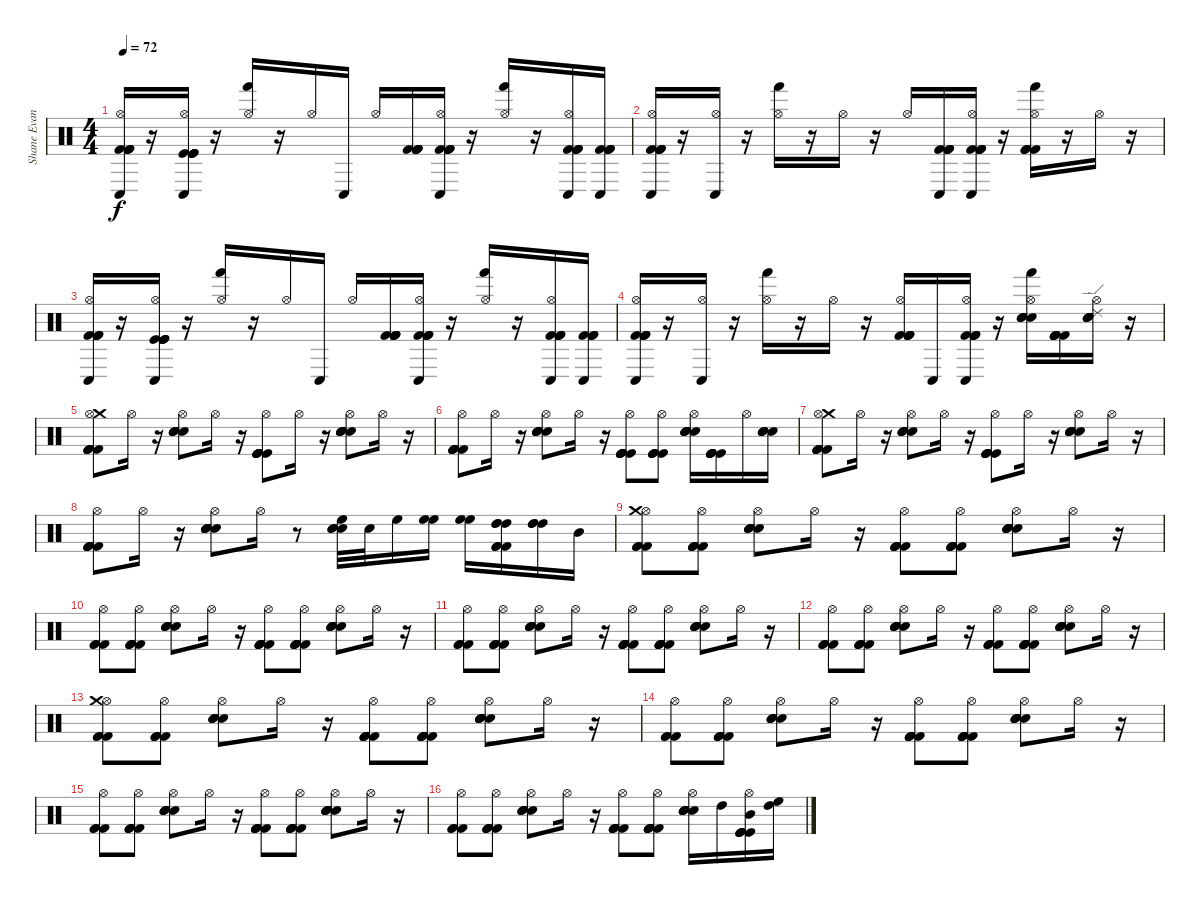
\track ("Shane Evans" "Shane Evan") {instrument percussion}
\staff {score}
\articulation defaults
\ts (4 4)
\tempo 72
\clef neutral
\ks c
("Conga low (hit)" "Hi-Hat (open)" "Kick (hit) 2" "Kick (hit) 2" "Kick (hit) 2" "Kick (hit) 2").16{dy f} r.16 ("Conga low (hit)" "Hi-Hat (open)" "Kick (hit)" "Kick (hit)" "Kick (hit)" "Kick (hit)").16 r.16 ("Hand (hit)" "Hi-Hat (open)").16 r.16 "Hi-Hat (open)".16 "Conga low (hit)".16 "Hi-Hat (open)".16 ("Kick (hit) 2" "Kick (hit) 2" "Kick (hit) 2" "Kick (hit) 2" "Kick (hit) 2" "Kick (hit) 2").16 ("Conga low (hit)" "Hi-Hat (open)" "Kick (hit) 2" "Kick (hit) 2" "Kick (hit) 2" "Kick (hit) 2").16 r.16 ("Hand (hit)" "Hi-Hat (open)").16 r.16 ("Conga low (hit)" "Hi-Hat (open)" "Kick (hit) 2" "Kick (hit) 2" "Kick (hit) 2" "Kick (hit) 2").16 ("Conga low (hit)" "Kick (hit) 2" "Kick (hit) 2" "Kick (hit) 2" "Kick (hit) 2").16 |
("Conga low (hit)" "Hi-Hat (open)" "Kick (hit) 2" "Kick (hit) 2" "Kick (hit) 2" "Kick (hit) 2").16 r.16 ("Conga low (hit)" "Hi-Hat (open)").16 r.16 ("Hand (hit)" "Hi-Hat (open)").16 r.16 "Hi-Hat (open)".16 r.16 "Hi-Hat (open)".16 ("Conga low (hit)" "Kick (hit) 2" "Kick (hit) 2" "Kick (hit) 2" "Kick (hit) 2").16 ("Conga low (hit)" "Hi-Hat (open)" "Kick (hit) 2" "Kick (hit) 2" "Kick (hit) 2" "Kick (hit) 2").16 r.16 ("Hand (hit)" "Hi-Hat (open)" "Kick (hit) 2" "Kick (hit) 2" "Kick (hit) 2" "Kick (hit) 2").16 r.16 "Hi-Hat (open)".16 r.16 |
("Conga low (hit)" "Hi-Hat (open)" "Kick (hit) 2" "Kick (hit) 2" "Kick (hit) 2" "Kick (hit) 2").16 r.16 ("Conga low (hit)" "Hi-Hat (open)" "Kick (hit)" "Kick (hit)" "Kick (hit)" "Kick (hit)").16 r.16 ("Hand (hit)" "Hi-Hat (open)").16 r.16 "Hi-Hat (open)".16 "Conga low (hit)".16 "Hi-Hat (open)".16 ("Kick (hit) 2" "Kick (hit) 2" "Kick (hit) 2" "Kick (hit) 2" "Kick (hit) 2" "Kick (hit) 2").16 ("Conga low (hit)" "Hi-Hat (open)" "Kick (hit) 2" "Kick (hit) 2" "Kick (hit) 2" "Kick (hit) 2").16 r.16 ("Hand (hit)" "Hi-Hat (open)").16 r.16 ("Conga low (hit)" "Hi-Hat (open)" "Kick (hit) 2" "Kick (hit) 2" "Kick (hit) 2" "Kick (hit) 2").16 ("Conga low (hit)" "Kick (hit) 2" "Kick (hit) 2" "Kick (hit) 2" "Kick (hit) 2").16 |
("Conga low (hit)" "Hi-Hat (open)" "Kick (hit) 2" "Kick (hit) 2" "Kick (hit) 2" "Kick (hit) 2").16 r.16 ("Conga low (hit)" "Hi-Hat (open)").16 r.16 ("Hand (hit)" "Hi-Hat (open)").16 r.16 "Hi-Hat (open)".16 r.16 ("Hi-Hat (open)" "Kick (hit) 2" "Kick (hit) 2" "Kick (hit) 2" "Kick (hit) 2" "Kick (hit) 2").16 "Conga low (hit)".16 ("Conga low (hit)" "Hi-Hat (open)" "Kick (hit) 2" "Kick (hit) 2" "Kick (hit) 2" "Kick (hit) 2").16 r.16 ("Hand (hit)" "Hi-Hat (open)" "Snare (hit) 2" "Snare (hit) 2" "Snare (hit) 2" "Snare (hit) 2").16 ("Kick (hit) 2" "Kick (hit) 2" "Kick (hit) 2" "Kick (hit) 2" "Kick (hit) 2" "Kick (hit) 2").16 ("Hi-Hat (open)" "Snare (hit) 2" "Snare (hit) 2" "Snare (hit) 2" "Snare (hit) 2" "Ride (edge) 2").16 r.16 |
("Crash medium (hit)" "Kick (hit) 2" "Kick (hit) 2" "Kick (hit) 2" "Kick (hit) 2" "Hi-Hat (open)").8 "Hi-Hat (open)".16 r.16 ("Hi-Hat (open)" "Snare (hit) 2" "Snare (hit) 2" "Snare (hit) 2" "Snare (hit) 2" "Snare (hit) 2").8 "Hi-Hat (open)".16 r.16 ("Hi-Hat (open)" "Kick (hit)" "Kick (hit)" "Kick (hit)" "Kick (hit)" "Kick (hit)").8 "Hi-Hat (open)".16 r.16 ("Hi-Hat (open)" "Snare (hit) 2" "Snare (hit) 2" "Snare (hit) 2" "Snare (hit) 2" "Snare (hit) 2").8 "Hi-Hat (open)".16 r.16 |
("Kick (hit) 2" "Kick (hit) 2" "Kick (hit) 2" "Kick (hit) 2" "Hi-Hat (open)" "Kick (hit) 2").8 "Hi-Hat (open)".16 r.16 ("Hi-Hat (open)" "Snare (hit) 2" "Snare (hit) 2" "Snare (hit) 2" "Snare (hit) 2" "Snare (hit) 2").8 "Hi-Hat (open)".16 r.16 ("Hi-Hat (open)" "Kick (hit)" "Kick (hit)" "Kick (hit)" "Kick (hit)" "Kick (hit)").8 ("Hi-Hat (open)" "Kick (hit)" "Kick (hit)" "Kick (hit)" "Kick (hit)").8 ("Hi-Hat (open)" "Snare (hit) 2" "Snare (hit) 2" "Snare (hit) 2" "Snare (hit) 2" "Snare (hit) 2").16 ("Kick (hit)" "Kick (hit)" "Kick (hit)" "Kick (hit)" "Kick (hit)").16 "Hi-Hat (open)".16 ("Snare (hit) 2" "Snare (hit) 2" "Snare (hit) 2" "Snare (hit) 2").16 |
("Crash medium (hit)" "Kick (hit) 2" "Kick (hit) 2" "Kick (hit) 2" "Kick (hit) 2" "Hi-Hat (open)").8 "Hi-Hat (open)".16 r.16 ("Hi-Hat (open)" "Snare (hit) 2" "Snare (hit) 2" "Snare (hit) 2" "Snare (hit) 2" "Snare (hit) 2").8 "Hi-Hat (open)".16 r.16 ("Hi-Hat (open)" "Kick (hit)" "Kick (hit)" "Kick (hit)" "Kick (hit)" "Kick (hit)").8 "Hi-Hat (open)".16 r.16 ("Hi-Hat (open)" "Snare (hit) 2" "Snare (hit) 2" "Snare (hit) 2" "Snare (hit) 2" "Snare (hit) 2").8 "Hi-Hat (open)".16 r.16 |
("Kick (hit) 2" "Kick (hit) 2" "Kick (hit) 2" "Kick (hit) 2" "Hi-Hat (open)" "Kick (hit) 2").8 "Hi-Hat (open)".16 r.16 ("Hi-Hat (open)" "Snare (hit) 2" "Snare (hit) 2" "Snare (hit) 2" "Snare (hit) 2" "Snare (hit) 2").8 "Hi-Hat (open)".16 r.8 ("Snare (hit) 2" "High Floor Tom (hit)" "Snare (hit) 2" "Snare (hit) 2").32 "Snare (hit) 2".32 "High Floor Tom (hit)".16 ("High Floor Tom (hit)" "High Floor Tom (hit)").16 ("High Floor Tom (hit)" "High Floor Tom (hit)").16 ("High Tom (hit)" "High Tom (hit)" "High Tom (hit)" "Kick (hit) 2" "Kick (hit) 2" "Kick (hit) 2").16 ("High Tom (hit)" "High Tom (hit)" "High Tom (hit)").16 "Mid Tom (hit)".16 |
("Hi-Hat (open)" "Crash medium (hit)" "Kick (hit) 2" "Kick (hit) 2" "Kick (hit) 2").8 ("Hi-Hat (open)" "Kick (hit) 2" "Kick (hit) 2" "Kick (hit) 2" "Kick (hit) 2").8 ("Hi-Hat (open)" "Snare (hit) 2" "Snare (hit) 2" "Snare (hit) 2" "Snare (hit) 2").8 "Hi-Hat (open)".16 r.16 ("Hi-Hat (open)" "Kick (hit) 2" "Kick (hit) 2" "Kick (hit) 2" "Kick (hit) 2" "Kick (hit) 2").8 ("Hi-Hat (open)" "Kick (hit) 2" "Kick (hit) 2" "Kick (hit) 2" "Kick (hit) 2" "Kick (hit) 2").8 ("Hi-Hat (open)" "Snare (hit) 2" "Snare (hit) 2" "Snare (hit) 2" "Snare (hit) 2" "Snare (hit) 2").8 "Hi-Hat (open)".16 r.16 |
("Hi-Hat (open)" "Kick (hit) 2" "Kick (hit) 2" "Kick (hit) 2").8 ("Hi-Hat (open)" "Kick (hit) 2" "Kick (hit) 2" "Kick (hit) 2" "Kick (hit) 2").8 ("Hi-Hat (open)" "Snare (hit) 2" "Snare (hit) 2" "Snare (hit) 2" "Snare (hit) 2").8 "Hi-Hat (open)".16 r.16 ("Hi-Hat (open)" "Kick (hit) 2" "Kick (hit) 2" "Kick (hit) 2" "Kick (hit) 2" "Kick (hit) 2").8 ("Hi-Hat (open)" "Kick (hit) 2" "Kick (hit) 2" "Kick (hit) 2" "Kick (hit) 2" "Kick (hit) 2").8 ("Hi-Hat (open)" "Snare (hit) 2" "Snare (hit) 2" "Snare (hit) 2" "Snare (hit) 2" "Snare (hit) 2").8 "Hi-Hat (open)".16 r.16 |
("Hi-Hat (open)" "Kick (hit) 2" "Kick (hit) 2" "Kick (hit) 2").8 ("Hi-Hat (open)" "Kick (hit) 2" "Kick (hit) 2" "Kick (hit) 2" "Kick (hit) 2").8 ("Hi-Hat (open)" "Snare (hit) 2" "Snare (hit) 2" "Snare (hit) 2" "Snare (hit) 2").8 "Hi-Hat (open)".16 r.16 ("Hi-Hat (open)" "Kick (hit) 2" "Kick (hit) 2" "Kick (hit) 2" "Kick (hit) 2" "Kick (hit) 2").8 ("Hi-Hat (open)" "Kick (hit) 2" "Kick (hit) 2" "Kick (hit) 2" "Kick (hit) 2" "Kick (hit) 2").8 ("Hi-Hat (open)" "Snare (hit) 2" "Snare (hit) 2" "Snare (hit) 2" "Snare (hit) 2" "Snare (hit) 2").8 "Hi-Hat (open)".16 r.16 |
("Hi-Hat (open)" "Kick (hit) 2" "Kick (hit) 2" "Kick (hit) 2").8 ("Hi-Hat (open)" "Kick (hit) 2" "Kick (hit) 2" "Kick (hit) 2" "Kick (hit) 2").8 ("Hi-Hat (open)" "Snare (hit) 2" "Snare (hit) 2" "Snare (hit) 2" "Snare (hit) 2" "Snare (hit) 2").8 "Hi-Hat (open)".16 r.16 ("Hi-Hat (open)" "Kick (hit) 2" "Kick (hit) 2" "Kick (hit) 2" "Kick (hit) 2").8 ("Hi-Hat (open)" "Kick (hit) 2" "Kick (hit) 2" "Kick (hit) 2" "Kick (hit) 2" "Kick (hit) 2").8 ("Hi-Hat (open)" "Snare (hit) 2" "Snare (hit) 2" "Snare (hit) 2" "Snare (hit) 2" "Snare (hit) 2").8 "Hi-Hat (open)".16 r.16 |
("Hi-Hat (open)" "Crash medium (hit)" "Kick (hit) 2" "Kick (hit) 2" "Kick (hit) 2").8 ("Hi-Hat (open)" "Kick (hit) 2" "Kick (hit) 2" "Kick (hit) 2" "Kick (hit) 2").8 ("Hi-Hat (open)" "Snare (hit) 2" "Snare (hit) 2" "Snare (hit) 2" "Snare (hit) 2").8 "Hi-Hat (open)".16 r.16 ("Hi-Hat (open)" "Kick (hit) 2" "Kick (hit) 2" "Kick (hit) 2" "Kick (hit) 2" "Kick (hit) 2").8 ("Hi-Hat (open)" "Kick (hit) 2" "Kick (hit) 2" "Kick (hit) 2" "Kick (hit) 2" "Kick (hit) 2").8 ("Hi-Hat (open)" "Snare (hit) 2" "Snare (hit) 2" "Snare (hit) 2" "Snare (hit) 2" "Snare (hit) 2").8 "Hi-Hat (open)".16 r.16 |
("Hi-Hat (open)" "Kick (hit) 2" "Kick (hit) 2" "Kick (hit) 2").8 ("Hi-Hat (open)" "Kick (hit) 2" "Kick (hit) 2" "Kick (hit) 2" "Kick (hit) 2").8 ("Hi-Hat (open)" "Snare (hit) 2" "Snare (hit) 2" "Snare (hit) 2" "Snare (hit) 2").8 "Hi-Hat (open)".16 r.16 ("Hi-Hat (open)" "Kick (hit) 2" "Kick (hit) 2" "Kick (hit) 2" "Kick (hit) 2" "Kick (hit) 2").8 ("Hi-Hat (open)" "Kick (hit) 2" "Kick (hit) 2" "Kick (hit) 2" "Kick (hit) 2" "Kick (hit) 2").8 ("Hi-Hat (open)" "Snare (hit) 2" "Snare (hit) 2" "Snare (hit) 2" "Snare (hit) 2" "Snare (hit) 2").8 "Hi-Hat (open)".16 r.16 |
("Hi-Hat (open)" "Kick (hit) 2" "Kick (hit) 2" "Kick (hit) 2").8 ("Hi-Hat (open)" "Kick (hit) 2" "Kick (hit) 2" "Kick (hit) 2" "Kick (hit) 2").8 ("Hi-Hat (open)" "Snare (hit) 2" "Snare (hit) 2" "Snare (hit) 2" "Snare (hit) 2").8 "Hi-Hat (open)".16 r.16 ("Hi-Hat (open)" "Kick (hit) 2" "Kick (hit) 2" "Kick (hit) 2" "Kick (hit) 2" "Kick (hit) 2").8 ("Hi-Hat (open)" "Kick (hit) 2" "Kick (hit) 2" "Kick (hit) 2" "Kick (hit) 2" "Kick (hit) 2").8 ("Hi-Hat (open)" "Snare (hit) 2" "Snare (hit) 2" "Snare (hit) 2" "Snare (hit) 2" "Snare (hit) 2").8 "Hi-Hat (open)".16 r.16 |
("Hi-Hat (open)" "Kick (hit) 2" "Kick (hit) 2" "Kick (hit) 2").8 ("Hi-Hat (open)" "Kick (hit) 2" "Kick (hit) 2" "Kick (hit) 2" "Kick (hit) 2").8 ("Hi-Hat (open)" "Snare (hit) 2" "Snare (hit) 2" "Snare (hit) 2" "Snare (hit) 2").8 "Hi-Hat (open)".16 r.16 ("Hi-Hat (open)" "Kick (hit) 2" "Kick (hit) 2" "Kick (hit) 2" "Kick (hit) 2" "Kick (hit) 2").8 ("Hi-Hat (open)" "Kick (hit) 2" "Kick (hit) 2" "Kick (hit) 2" "Kick (hit) 2" "Kick (hit) 2").8 ("Hi-Hat (open)" "Snare (hit) 2" "Snare (hit) 2" "Snare (hit) 2" "Snare (hit) 2" "Snare (hit) 2").16 "High Tom (hit)".16 ("Hi-Hat (open)" "Kick (hit)" "Kick (hit)" "Kick (hit)" "Kick (hit)" "Mid Tom (hit)").16 ("High Floor Tom (hit)" "High Tom (hit)").16
